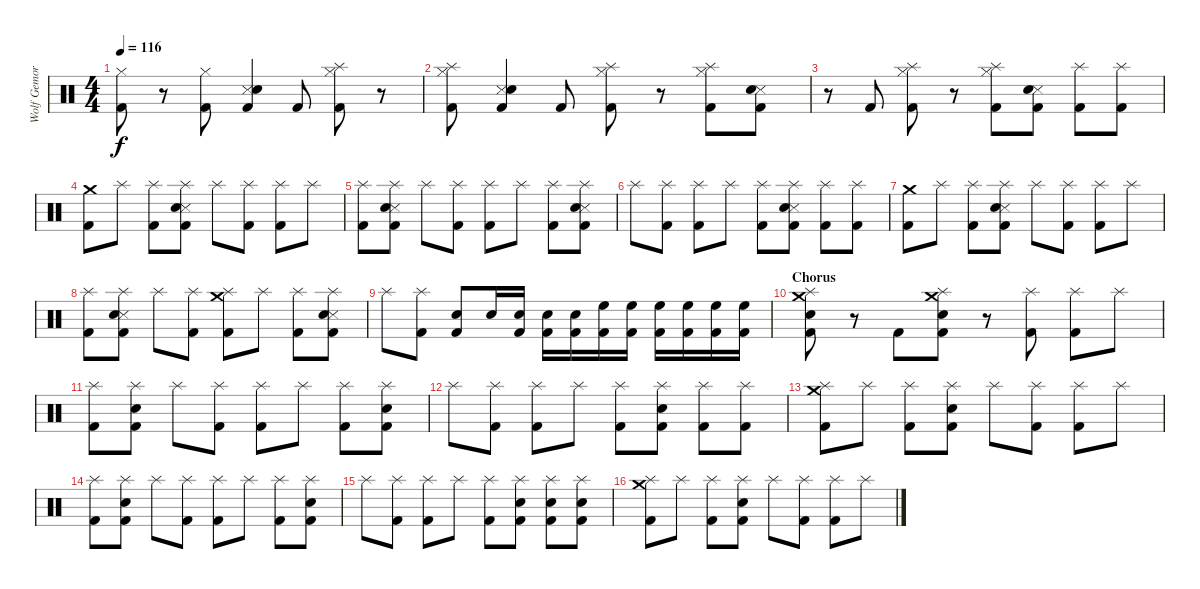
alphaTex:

\track ("Wolf Gemora" "Wolf Gemor") {instrument percussion}
\staff {score}
\articulation defaults
\ts (4 4)
\tempo 116
\clef neutral
\ks c
("Hi-Hat (closed)" "Kick (hit) 2").8{dy f} r.8 ("Hi-Hat (closed)" "Kick (hit) 2").8 ("Snare (side stick) 3" "Snare (hit) 2" "Kick (hit) 2").4 "Kick (hit) 2".8 ("Hi-Hat (closed)" "Splash (hit)" "Kick (hit) 2").8 r.8 |
("Hi-Hat (closed)" "Splash (hit)" "Kick (hit) 2").8 ("Snare (side stick) 3" "Snare (hit) 2" "Kick (hit) 2").4 "Kick (hit) 2".8 ("Hi-Hat (closed)" "Splash (hit)" "Kick (hit) 2").8 r.8 ("Hi-Hat (closed)" "Splash (hit)" "Kick (hit) 2").8 ("Snare (side stick) 3" "Snare (hit) 2" "Kick (hit) 2").8 |
r.8 "Kick (hit) 2".8 ("Hi-Hat (closed)" "Splash (hit)" "Kick (hit) 2").8 r.8 ("Hi-Hat (closed)" "Splash (hit)" "Kick (hit) 2").8 ("Snare (side stick) 3" "Snare (hit) 2" "Kick (hit) 2").8 ("Splash (hit)" "Kick (hit) 2").8 ("Splash (hit)" "Kick (hit) 2").8 |
("Crash medium (hit)" "Kick (hit) 2").8 "Splash (hit)".8 ("Splash (hit)" "Kick (hit) 2").8 ("Snare (side stick) 3" "Snare (hit) 2" "Splash (hit)" "Kick (hit) 2").8 "Splash (hit)".8 ("Splash (hit)" "Kick (hit) 2").8 ("Splash (hit)" "Kick (hit) 2").8 "Splash (hit)".8 |
("Splash (hit)" "Kick (hit) 2").8 ("Snare (side stick) 3" "Snare (hit) 2" "Splash (hit)" "Kick (hit) 2").8 "Splash (hit)".8 ("Splash (hit)" "Kick (hit) 2").8 ("Splash (hit)" "Kick (hit) 2").8 "Splash (hit)".8 ("Splash (hit)" "Kick (hit) 2").8 ("Snare (side stick) 3" "Snare (hit) 2" "Splash (hit)" "Kick (hit) 2").8 |
"Splash (hit)".8 ("Splash (hit)" "Kick (hit) 2").8 ("Splash (hit)" "Kick (hit) 2").8 "Splash (hit)".8 ("Splash (hit)" "Kick (hit) 2").8 ("Snare (side stick) 3" "Snare (hit) 2" "Splash (hit)" "Kick (hit) 2").8 ("Splash (hit)" "Kick (hit) 2").8 ("Splash (hit)" "Kick (hit) 2").8 |
("Crash medium (hit)" "Kick (hit) 2").8 "Splash (hit)".8 ("Splash (hit)" "Kick (hit) 2").8 ("Snare (side stick) 3" "Snare (hit) 2" "Splash (hit)" "Kick (hit) 2").8 "Splash (hit)".8 ("Splash (hit)" "Kick (hit) 2").8 ("Splash (hit)" "Kick (hit) 2").8 "Splash (hit)".8 |
("Splash (hit)" "Kick (hit) 2").8 ("Snare (side stick) 3" "Snare (hit) 2" "Splash (hit)" "Kick (hit) 2").8 "Splash (hit)".8 ("Splash (hit)" "Kick (hit) 2").8 ("Crash medium (hit)" "Splash (hit)" "Kick (hit) 2").8 "Splash (hit)".8 ("Splash (hit)" "Kick (hit) 2").8 ("Snare (side stick) 3" "Snare (hit) 2" "Splash (hit)" "Kick (hit) 2").8 |
"Splash (hit)".8 ("Splash (hit)" "Kick (hit) 2").8 ("Snare (hit) 2" "Kick (hit) 2").8 "Snare (hit) 2".16 ("Snare (hit) 2" "Kick (hit) 2").16 ("Snare (hit) 2" "Kick (hit) 2").16 ("Snare (hit) 2" "Kick (hit) 2").16 ("High Floor Tom (hit)" "Kick (hit) 2").16 ("High Floor Tom (hit)" "Kick (hit) 2").16 ("High Floor Tom (hit)" "Kick (hit) 2").16 ("High Floor Tom (hit)" "Kick (hit) 2").16 ("High Floor Tom (hit)" "Kick (hit) 2").16 ("High Floor Tom (hit)" "Kick (hit) 2").16 |
\section ("" "Chorus")
("Crash medium (hit)" "Snare (hit) 2" "Splash (hit)" "Kick (hit) 2").8 r.8 "Kick (hit) 2".8 ("Crash medium (hit)" "Snare (hit) 2" "Splash (hit)" "Kick (hit) 2").8 r.8 ("Splash (hit)" "Kick (hit) 2").8 ("Splash (hit)" "Kick (hit) 2").8 "Splash (hit)".8 |
("Splash (hit)" "Kick (hit) 2").8 ("Snare (hit) 2" "Splash (hit)" "Kick (hit) 2").8 "Splash (hit)".8 ("Splash (hit)" "Kick (hit) 2").8 ("Splash (hit)" "Kick (hit) 2").8 "Splash (hit)".8 ("Splash (hit)" "Kick (hit) 2").8 ("Snare (hit) 2" "Splash (hit)" "Kick (hit) 2").8 |
"Splash (hit)".8 ("Splash (hit)" "Kick (hit) 2").8 ("Splash (hit)" "Kick (hit) 2").8 "Splash (hit)".8 ("Splash (hit)" "Kick (hit) 2").8 ("Snare (hit) 2" "Splash (hit)" "Kick (hit) 2").8 ("Splash (hit)" "Kick (hit) 2").8 ("Splash (hit)" "Kick (hit) 2").8 |
("Crash medium (hit)" "Splash (hit)" "Kick (hit) 2").8 "Splash (hit)".8 ("Splash (hit)" "Kick (hit) 2").8 ("Snare (hit) 2" "Splash (hit)" "Kick (hit) 2").8 "Splash (hit)".8 ("Splash (hit)" "Kick (hit) 2").8 ("Splash (hit)" "Kick (hit) 2").8 "Splash (hit)".8 |
("Splash (hit)" "Kick (hit) 2").8 ("Snare (hit) 2" "Splash (hit)" "Kick (hit) 2").8 "Splash (hit)".8 ("Splash (hit)" "Kick (hit) 2").8 ("Splash (hit)" "Kick (hit) 2").8 "Splash (hit)".8 ("Splash (hit)" "Kick (hit) 2").8 ("Snare (hit) 2" "Splash (hit)" "Kick (hit) 2").8 |
"Splash (hit)".8 ("Splash (hit)" "Kick (hit) 2").8 ("Splash (hit)" "Kick (hit) 2").8 "Splash (hit)".8 ("Splash (hit)" "Kick (hit) 2").8 ("Snare (hit) 2" "Splash (hit)" "Kick (hit) 2").8 ("Snare (hit) 2" "Splash (hit)" "Kick (hit) 2").8 ("Snare (hit) 2" "Splash (hit)" "Kick (hit) 2").8 |
("Crash medium (hit)" "Splash (hit)" "Kick (hit) 2").8 "Splash (hit)".8 ("Splash (hit)" "Kick (hit) 2").8 ("Snare (hit) 2" "Splash (hit)" "Kick (hit) 2").8 "Splash (hit)".8 ("Splash (hit)" "Kick (hit) 2").8 ("Splash (hit)" "Kick (hit) 2").8 "Splash (hit)".8
